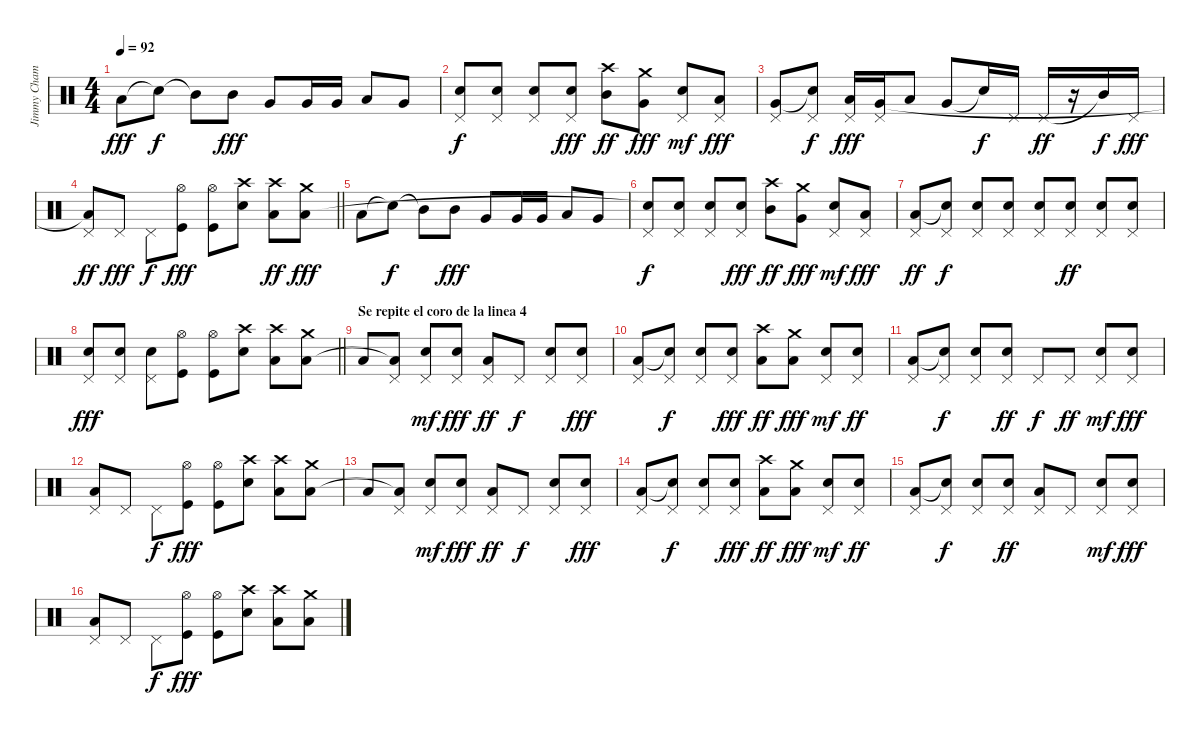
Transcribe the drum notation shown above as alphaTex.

\track ("Jimmy Chamberlin" "Jimmy Cham") {instrument percussion}
\staff {score}
\articulation defaults
\ts (4 4)
\tempo 92
\clef neutral
\ks c "Low Floor Tom (hit)".8{dy fff} "Snare (hit)"{t}.8{dy f} "Mid Tom (hit)"{t}.8 "Mid Tom (hit)".8{dy fff} "Very Low Tom (hit)".8 "Very Low Tom (hit)".16 "Very Low Tom (hit)".16 "Low Tom (hit)".8 "Very Low Tom (hit)".8
|
("Pedal Hi-Hat (hit)" "Snare (hit) 2"{t}).8{dy f} ("Pedal Hi-Hat (hit)" "Snare (hit) 2").8 ("Pedal Hi-Hat (hit)" "Snare (hit) 2").8 ("Pedal Hi-Hat (hit)" "Snare (hit) 2").8{dy fff} ("Crash high (hit)" "Mid Tom (hit)").8{dy ff} ("Crash medium (hit)" "Very Low Tom (hit)").8{dy fff} ("Pedal Hi-Hat (hit)" "Snare (hit) 2").8{dy mf} ("Pedal Hi-Hat (hit)" "Low Tom (hit)").8{dy fff} |
("Pedal Hi-Hat (hit)" "Very Low Tom (hit)").8 ("Pedal Hi-Hat (hit)" "Snare (hit)"{t}).8{dy f} ("Pedal Hi-Hat (hit)" "Low Tom (hit)").16{dy fff} ("Pedal Hi-Hat (hit)" "Very Low Tom (hit)").16 "Low Tom (hit)".8 "Very Low Tom (hit)".8 "Snare (hit)"{t}.16{dy f} "Pedal Hi-Hat (hit)".16 "Pedal Hi-Hat (hit)".16{dy ff} r.16 "Mid Tom (hit)"{t}.16{dy f} "Pedal Hi-Hat (hit)".16{dy fff} |
\barLineRight lightlight
("Pedal Hi-Hat (hit)" "Low Tom (hit)"{t}).8{dy ff} "Pedal Hi-Hat (hit)".8{dy fff} "Pedal Hi-Hat (hit)".8{dy f} ("Hi-Hat (open)" "Kick (hit)").8{dy fff} ("Hi-Hat (open)" "Kick (hit)").8 ("Crash high (hit)" "Snare (hit) 2").8 ("Crash high (hit)" "Low Tom (hit)").8{dy ff} ("Crash medium (hit)" "Low Floor Tom (hit)").8{dy fff} |
"Low Floor Tom (hit)".8 "Snare (hit)"{t}.8{dy f} "Mid Tom (hit)"{t}.8 "Mid Tom (hit)".8{dy fff} "Very Low Tom (hit)".8 "Very Low Tom (hit)".16 "Very Low Tom (hit)".16 "Low Tom (hit)".8 "Very Low Tom (hit)".8 |
("Pedal Hi-Hat (hit)" "Snare (hit) 2"{t}).8{dy f} ("Pedal Hi-Hat (hit)" "Snare (hit) 2").8 ("Pedal Hi-Hat (hit)" "Snare (hit) 2").8 ("Pedal Hi-Hat (hit)" "Snare (hit) 2").8{dy fff} ("Crash high (hit)" "Mid Tom (hit)").8{dy ff} ("Crash medium (hit)" "Very Low Tom (hit)").8{dy fff} ("Pedal Hi-Hat (hit)" "Snare (hit) 2").8{dy mf} ("Pedal Hi-Hat (hit)" "Low Tom (hit)").8{dy fff} |
("Pedal Hi-Hat (hit)" "Low Tom (hit)").8{dy ff} ("Pedal Hi-Hat (hit)" "Snare (hit)"{t}).8{dy f} ("Pedal Hi-Hat (hit)" "Snare (hit) 2").8 ("Pedal Hi-Hat (hit)" "Snare (hit) 2").8 ("Pedal Hi-Hat (hit)" "Snare (hit) 2").8 ("Pedal Hi-Hat (hit)" "Snare (hit) 2").8{dy ff} ("Pedal Hi-Hat (hit)" "Snare (hit) 2").8 ("Pedal Hi-Hat (hit)" "Snare (hit) 2").8 |
\barLineRight lightlight
("Pedal Hi-Hat (hit)" "Snare (hit) 2").8{dy fff} ("Pedal Hi-Hat (hit)" "Snare (hit) 2").8 ("Pedal Hi-Hat (hit)" "Snare (hit) 2").8 ("Hi-Hat (open)" "Kick (hit)").8 ("Hi-Hat (open)" "Kick (hit)").8 ("Crash high (hit)" "Snare (hit) 2").8 ("Crash high (hit)" "Low Tom (hit)").8 ("Crash medium (hit)" "Low Floor Tom (hit)").8 |
\section ("" "Se repite el coro de la linea 4")
"Low Floor Tom (hit)".8 ("Pedal Hi-Hat (hit)" "Low Floor Tom (hit)"{t}).8 ("Pedal Hi-Hat (hit)" "Snare (hit) 2").8{dy mf} ("Pedal Hi-Hat (hit)" "Snare (hit) 2").8{dy fff} ("Pedal Hi-Hat (hit)" "Low Tom (hit)").8{dy ff} "Pedal Hi-Hat (hit)".8{dy f} ("Pedal Hi-Hat (hit)" "Snare (hit) 2").8 ("Pedal Hi-Hat (hit)" "Snare (hit) 2").8{dy fff} |
("Pedal Hi-Hat (hit)" "Low Tom (hit)").8 ("Pedal Hi-Hat (hit)" "Snare (hit)"{t}).8{dy f} ("Pedal Hi-Hat (hit)" "Snare (hit) 2").8 ("Pedal Hi-Hat (hit)" "Snare (hit) 2").8{dy fff} ("Crash high (hit)" "Low Tom (hit)").8{dy ff} ("Crash medium (hit)" "Low Floor Tom (hit)").8{dy fff} ("Pedal Hi-Hat (hit)" "Snare (hit) 2").8{dy mf} ("Pedal Hi-Hat (hit)" "Snare (hit) 2").8{dy ff} |
("Pedal Hi-Hat (hit)" "Low Tom (hit)").8 ("Pedal Hi-Hat (hit)" "Snare (hit)"{t}).8{dy f} ("Pedal Hi-Hat (hit)" "Snare (hit) 2").8 ("Pedal Hi-Hat (hit)" "Snare (hit) 2").8{dy ff} "Pedal Hi-Hat (hit)".8{dy f} "Pedal Hi-Hat (hit)".8{dy ff} ("Pedal Hi-Hat (hit)" "Snare (hit) 2").8{dy mf} ("Pedal Hi-Hat (hit)" "Snare (hit) 2").8{dy fff} |
("Pedal Hi-Hat (hit)" "Low Tom (hit)").8 "Pedal Hi-Hat (hit)".8 "Pedal Hi-Hat (hit)".8{dy f} ("Hi-Hat (open)" "Kick (hit)").8{dy fff} ("Hi-Hat (open)" "Kick (hit)").8 ("Crash high (hit)" "Snare (hit) 2").8 ("Crash high (hit)" "Low Tom (hit)").8 ("Crash medium (hit)" "Low Floor Tom (hit)").8 |
"Low Floor Tom (hit)".8 ("Pedal Hi-Hat (hit)" "Low Floor Tom (hit)"{t}).8 ("Pedal Hi-Hat (hit)" "Snare (hit) 2").8{dy mf} ("Pedal Hi-Hat (hit)" "Snare (hit) 2").8{dy fff} ("Pedal Hi-Hat (hit)" "Low Tom (hit)").8{dy ff} "Pedal Hi-Hat (hit)".8{dy f} ("Pedal Hi-Hat (hit)" "Snare (hit) 2").8 ("Pedal Hi-Hat (hit)" "Snare (hit) 2").8{dy fff} |
("Pedal Hi-Hat (hit)" "Low Tom (hit)").8 ("Pedal Hi-Hat (hit)" "Snare (hit)"{t}).8{dy f} ("Pedal Hi-Hat (hit)" "Snare (hit) 2").8 ("Pedal Hi-Hat (hit)" "Snare (hit) 2").8{dy fff} ("Crash high (hit)" "Low Tom (hit)").8{dy ff} ("Crash medium (hit)" "Low Floor Tom (hit)").8{dy fff} ("Pedal Hi-Hat (hit)" "Snare (hit) 2").8{dy mf} ("Pedal Hi-Hat (hit)" "Snare (hit) 2").8{dy ff} |
("Pedal Hi-Hat (hit)" "Low Tom (hit)").8 ("Pedal Hi-Hat (hit)" "Snare (hit)"{t}).8{dy f} ("Pedal Hi-Hat (hit)" "Snare (hit) 2").8 ("Pedal Hi-Hat (hit)" "Snare (hit) 2").8{dy ff} ("Pedal Hi-Hat (hit)" "Low Floor Tom (hit)").8 "Pedal Hi-Hat (hit)".8 ("Pedal Hi-Hat (hit)" "Snare (hit) 2").8{dy mf} ("Pedal Hi-Hat (hit)" "Snare (hit) 2").8{dy fff} |
("Pedal Hi-Hat (hit)" "Low Tom (hit)").8 "Pedal Hi-Hat (hit)".8 "Pedal Hi-Hat (hit)".8{dy f} ("Hi-Hat (open)" "Kick (hit)").8{dy fff} ("Hi-Hat (open)" "Kick (hit)").8 ("Crash high (hit)" "Snare (hit) 2").8 ("Crash high (hit)" "Low Tom (hit)").8 ("Crash medium (hit)" "Low Floor Tom (hit)").8
